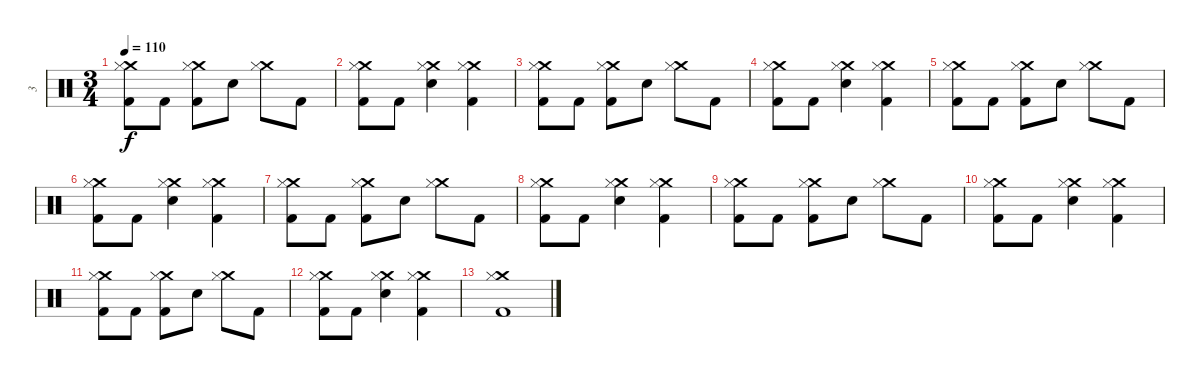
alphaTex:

\track ("3" "3") {instrument percussion}
\staff {score}
\articulation defaults
\ts (3 4)
\tempo 110
\clef neutral
\ks c
("Crash medium (hit)" "Hi-Hat (closed)" "Kick (hit) 2").8{dy f} "Kick (hit) 2".8 ("Crash medium (hit)" "Hi-Hat (closed)" "Kick (hit) 2").8 "Snare (hit) 2".8 ("Crash medium (hit)" "Hi-Hat (closed)").8 "Kick (hit) 2".8 |
("Crash medium (hit)" "Hi-Hat (closed)" "Kick (hit) 2").8 "Kick (hit) 2".8 ("Crash medium (hit)" "Hi-Hat (closed)" "Snare (hit) 2").4 ("Crash medium (hit)" "Hi-Hat (closed)" "Kick (hit) 2").4 |
("Crash medium (hit)" "Hi-Hat (closed)" "Kick (hit) 2").8 "Kick (hit) 2".8 ("Crash medium (hit)" "Hi-Hat (closed)" "Kick (hit) 2").8 "Snare (hit) 2".8 ("Crash medium (hit)" "Hi-Hat (closed)").8 "Kick (hit) 2".8 |
("Crash medium (hit)" "Hi-Hat (closed)" "Kick (hit) 2").8 "Kick (hit) 2".8 ("Crash medium (hit)" "Hi-Hat (closed)" "Snare (hit) 2").4 ("Crash medium (hit)" "Hi-Hat (closed)" "Kick (hit) 2").4 |
("Crash medium (hit)" "Hi-Hat (closed)" "Kick (hit) 2").8 "Kick (hit) 2".8 ("Crash medium (hit)" "Hi-Hat (closed)" "Kick (hit) 2").8 "Snare (hit) 2".8 ("Crash medium (hit)" "Hi-Hat (closed)").8 "Kick (hit) 2".8 |
("Crash medium (hit)" "Hi-Hat (closed)" "Kick (hit) 2").8 "Kick (hit) 2".8 ("Crash medium (hit)" "Hi-Hat (closed)" "Snare (hit) 2").4 ("Crash medium (hit)" "Hi-Hat (closed)" "Kick (hit) 2").4 |
("Crash medium (hit)" "Hi-Hat (closed)" "Kick (hit) 2").8 "Kick (hit) 2".8 ("Crash medium (hit)" "Hi-Hat (closed)" "Kick (hit) 2").8 "Snare (hit) 2".8 ("Crash medium (hit)" "Hi-Hat (closed)").8 "Kick (hit) 2".8 |
("Crash medium (hit)" "Hi-Hat (closed)" "Kick (hit) 2").8 "Kick (hit) 2".8 ("Crash medium (hit)" "Hi-Hat (closed)" "Snare (hit) 2").4 ("Crash medium (hit)" "Hi-Hat (closed)" "Kick (hit) 2").4 |
("Crash medium (hit)" "Hi-Hat (closed)" "Kick (hit) 2").8 "Kick (hit) 2".8 ("Crash medium (hit)" "Hi-Hat (closed)" "Kick (hit) 2").8 "Snare (hit) 2".8 ("Crash medium (hit)" "Hi-Hat (closed)").8 "Kick (hit) 2".8 |
("Crash medium (hit)" "Hi-Hat (closed)" "Kick (hit) 2").8 "Kick (hit) 2".8 ("Crash medium (hit)" "Hi-Hat (closed)" "Snare (hit) 2").4 ("Crash medium (hit)" "Hi-Hat (closed)" "Kick (hit) 2").4 |
("Crash medium (hit)" "Hi-Hat (closed)" "Kick (hit) 2").8 "Kick (hit) 2".8 ("Crash medium (hit)" "Hi-Hat (closed)" "Kick (hit) 2").8 "Snare (hit) 2".8 ("Crash medium (hit)" "Hi-Hat (closed)").8 "Kick (hit) 2".8 |
("Crash medium (hit)" "Hi-Hat (closed)" "Kick (hit) 2").8 "Kick (hit) 2".8 ("Crash medium (hit)" "Hi-Hat (closed)" "Snare (hit) 2").4 ("Crash medium (hit)" "Hi-Hat (closed)" "Kick (hit) 2").4 |
("Crash medium (hit)" "Hi-Hat (closed)" "Kick (hit) 2").1
